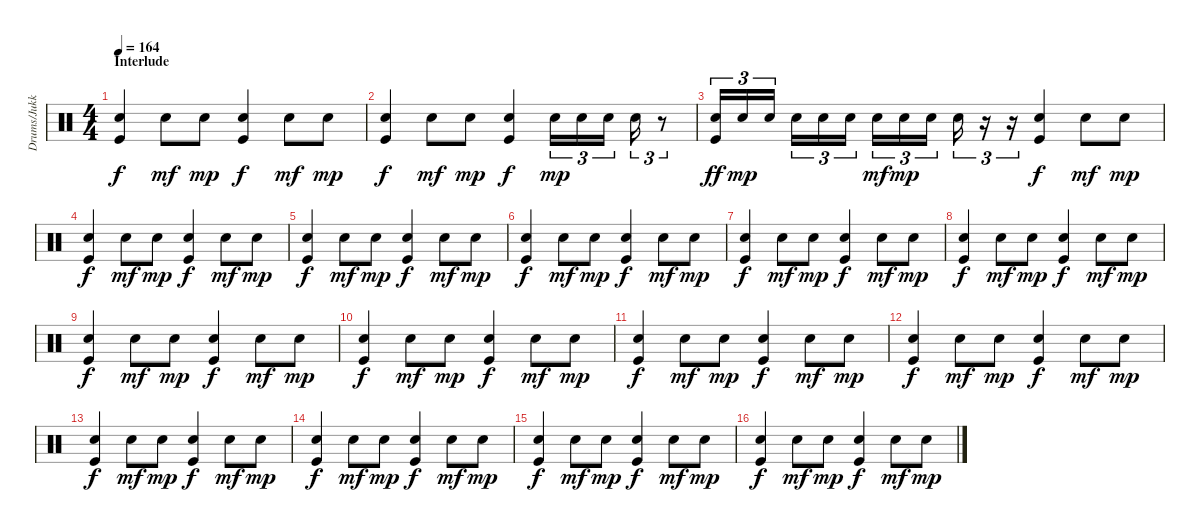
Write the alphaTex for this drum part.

\track ("Drums/Jukka" "Drums/Jukk") {instrument percussion}
\staff {score}
\articulation defaults
\ts (4 4)
\section ("" "Interlude")
\tempo 164
\clef neutral
\ks c
("Electric Snare (hit)" "Kick (hit)").4{dy f} "Electric Snare (hit)".8{dy mf} "Electric Snare (hit)".8{dy mp} ("Electric Snare (hit)" "Kick (hit)").4{dy f} "Electric Snare (hit)".8{dy mf} "Electric Snare (hit)".8{dy mp} |
("Electric Snare (hit)" "Kick (hit)").4{dy f} "Electric Snare (hit)".8{dy mf} "Electric Snare (hit)".8{dy mp} ("Electric Snare (hit)" "Kick (hit)").4{dy f} "Electric Snare (hit)".16{tu (3 2) dy mp} "Electric Snare (hit)".16{tu (3 2)} "Electric Snare (hit)".16{tu (3 2) beam splitsecondary} "Electric Snare (hit)".16{tu (3 2)} r.8{tu (3 2)} |
("Electric Snare (hit)" "Kick (hit)").16{tu (3 2) dy ff} "Electric Snare (hit)".16{tu (3 2) dy mp} "Electric Snare (hit)".16{tu (3 2) beam splitsecondary} "Electric Snare (hit)".16{tu (3 2)} "Electric Snare (hit)".16{tu (3 2)} "Electric Snare (hit)".16{tu (3 2)} "Electric Snare (hit)".16{tu (3 2) dy mf} "Electric Snare (hit)".16{tu (3 2) dy mp} "Electric Snare (hit)".16{tu (3 2) beam splitsecondary} "Electric Snare (hit)".16{tu (3 2)} r.16{tu (3 2)} r.16{tu (3 2)} ("Electric Snare (hit)" "Kick (hit)").4{dy f} "Electric Snare (hit)".8{dy mf} "Electric Snare (hit)".8{dy mp} |
("Electric Snare (hit)" "Kick (hit)").4{dy f} "Electric Snare (hit)".8{dy mf} "Electric Snare (hit)".8{dy mp} ("Electric Snare (hit)" "Kick (hit)").4{dy f} "Electric Snare (hit)".8{dy mf} "Electric Snare (hit)".8{dy mp} |
("Electric Snare (hit)" "Kick (hit)").4{dy f} "Electric Snare (hit)".8{dy mf} "Electric Snare (hit)".8{dy mp} ("Electric Snare (hit)" "Kick (hit)").4{dy f} "Electric Snare (hit)".8{dy mf} "Electric Snare (hit)".8{dy mp} |
("Electric Snare (hit)" "Kick (hit)").4{dy f} "Electric Snare (hit)".8{dy mf} "Electric Snare (hit)".8{dy mp} ("Electric Snare (hit)" "Kick (hit)").4{dy f} "Electric Snare (hit)".8{dy mf} "Electric Snare (hit)".8{dy mp} |
("Electric Snare (hit)" "Kick (hit)").4{dy f} "Electric Snare (hit)".8{dy mf} "Electric Snare (hit)".8{dy mp} ("Electric Snare (hit)" "Kick (hit)").4{dy f} "Electric Snare (hit)".8{dy mf} "Electric Snare (hit)".8{dy mp} |
("Electric Snare (hit)" "Kick (hit)").4{dy f} "Electric Snare (hit)".8{dy mf} "Electric Snare (hit)".8{dy mp} ("Electric Snare (hit)" "Kick (hit)").4{dy f} "Electric Snare (hit)".8{dy mf} "Electric Snare (hit)".8{dy mp} |
("Electric Snare (hit)" "Kick (hit)").4{dy f} "Electric Snare (hit)".8{dy mf} "Electric Snare (hit)".8{dy mp} ("Electric Snare (hit)" "Kick (hit)").4{dy f} "Electric Snare (hit)".8{dy mf} "Electric Snare (hit)".8{dy mp} |
("Electric Snare (hit)" "Kick (hit)").4{dy f} "Electric Snare (hit)".8{dy mf} "Electric Snare (hit)".8{dy mp} ("Electric Snare (hit)" "Kick (hit)").4{dy f} "Electric Snare (hit)".8{dy mf} "Electric Snare (hit)".8{dy mp} |
("Electric Snare (hit)" "Kick (hit)").4{dy f} "Electric Snare (hit)".8{dy mf} "Electric Snare (hit)".8{dy mp} ("Electric Snare (hit)" "Kick (hit)").4{dy f} "Electric Snare (hit)".8{dy mf} "Electric Snare (hit)".8{dy mp} |
("Electric Snare (hit)" "Kick (hit)").4{dy f} "Electric Snare (hit)".8{dy mf} "Electric Snare (hit)".8{dy mp} ("Electric Snare (hit)" "Kick (hit)").4{dy f} "Electric Snare (hit)".8{dy mf} "Electric Snare (hit)".8{dy mp} |
("Electric Snare (hit)" "Kick (hit)").4{dy f} "Electric Snare (hit)".8{dy mf} "Electric Snare (hit)".8{dy mp} ("Electric Snare (hit)" "Kick (hit)").4{dy f} "Electric Snare (hit)".8{dy mf} "Electric Snare (hit)".8{dy mp} |
("Electric Snare (hit)" "Kick (hit)").4{dy f} "Electric Snare (hit)".8{dy mf} "Electric Snare (hit)".8{dy mp} ("Electric Snare (hit)" "Kick (hit)").4{dy f} "Electric Snare (hit)".8{dy mf} "Electric Snare (hit)".8{dy mp} |
("Electric Snare (hit)" "Kick (hit)").4{dy f} "Electric Snare (hit)".8{dy mf} "Electric Snare (hit)".8{dy mp} ("Electric Snare (hit)" "Kick (hit)").4{dy f} "Electric Snare (hit)".8{dy mf} "Electric Snare (hit)".8{dy mp} |
("Electric Snare (hit)" "Kick (hit)").4{dy f} "Electric Snare (hit)".8{dy mf} "Electric Snare (hit)".8{dy mp} ("Electric Snare (hit)" "Kick (hit)").4{dy f} "Electric Snare (hit)".8{dy mf} "Electric Snare (hit)".8{dy mp}
